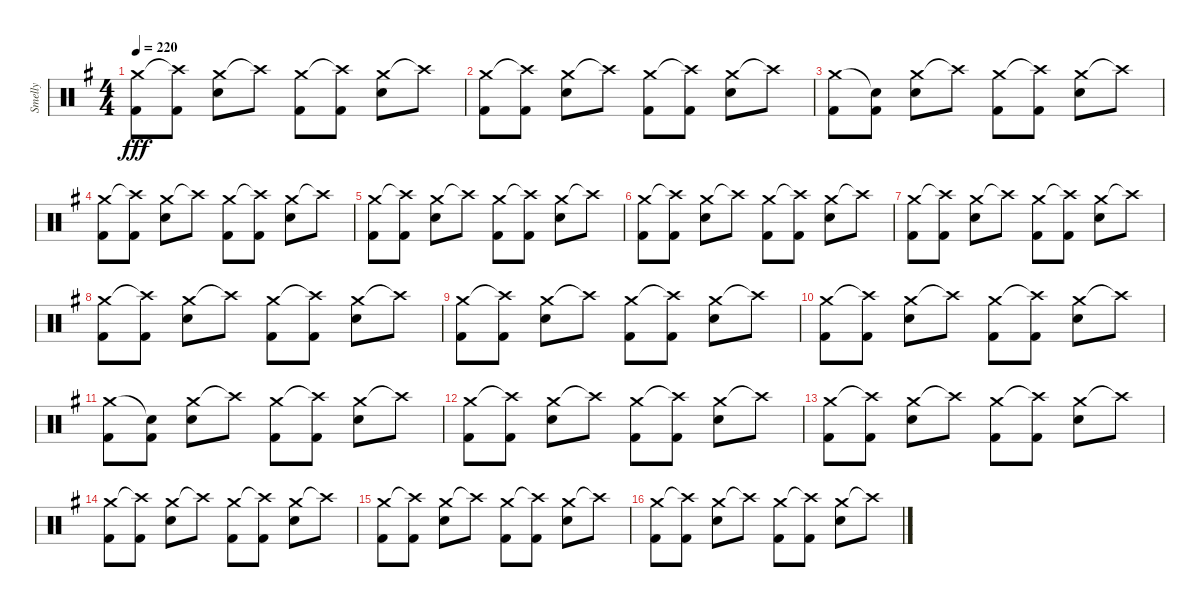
\track ("Smelly" "Smelly") {instrument percussion}
\staff {score}
\articulation defaults
\ts (4 4)
\tempo 220
\clef neutral
\ks eminor
("Crash medium (hit)" "Kick (hit) 2").8{dy fff} ("Crash high (hit)"{t} "Kick (hit) 2").8 ("Crash medium (hit)" "Electric Snare (hit)").8 "Crash high (hit)"{t}.8 ("Crash medium (hit)" "Kick (hit) 2").8 ("Crash high (hit)"{t} "Kick (hit) 2").8 ("Crash medium (hit)" "Electric Snare (hit)").8 "Crash high (hit)"{t}.8 |
("Crash medium (hit)" "Kick (hit) 2").8 ("Crash high (hit)"{t} "Kick (hit) 2").8 ("Crash medium (hit)" "Electric Snare (hit)").8 "Crash high (hit)"{t}.8 ("Crash medium (hit)" "Kick (hit) 2").8 ("Crash high (hit)"{t} "Kick (hit) 2").8 ("Crash medium (hit)" "Electric Snare (hit)").8 "Crash high (hit)"{t}.8 |
("Crash medium (hit)" "Kick (hit) 2").8 ("Snare (hit)"{t} "Kick (hit) 2").8 ("Crash medium (hit)" "Electric Snare (hit)").8 "Crash high (hit)"{t}.8 ("Crash medium (hit)" "Kick (hit) 2").8 ("Crash high (hit)"{t} "Kick (hit) 2").8 ("Crash medium (hit)" "Electric Snare (hit)").8 "Crash high (hit)"{t}.8 |
("Crash medium (hit)" "Kick (hit) 2").8 ("Crash high (hit)"{t} "Kick (hit) 2").8 ("Crash medium (hit)" "Electric Snare (hit)").8 "Crash high (hit)"{t}.8 ("Crash medium (hit)" "Kick (hit) 2").8 ("Crash high (hit)"{t} "Kick (hit) 2").8 ("Crash medium (hit)" "Electric Snare (hit)").8 "Crash high (hit)"{t}.8 |
("Crash medium (hit)" "Kick (hit) 2").8 ("Crash high (hit)"{t} "Kick (hit) 2").8 ("Crash medium (hit)" "Electric Snare (hit)").8 "Crash high (hit)"{t}.8 ("Crash medium (hit)" "Kick (hit) 2").8 ("Crash high (hit)"{t} "Kick (hit) 2").8 ("Crash medium (hit)" "Electric Snare (hit)").8 "Crash high (hit)"{t}.8 |
("Crash medium (hit)" "Kick (hit) 2").8 ("Crash high (hit)"{t} "Kick (hit) 2").8 ("Crash medium (hit)" "Electric Snare (hit)").8 "Crash high (hit)"{t}.8 ("Crash medium (hit)" "Kick (hit) 2").8 ("Crash high (hit)"{t} "Kick (hit) 2").8 ("Crash medium (hit)" "Electric Snare (hit)").8 "Crash high (hit)"{t}.8 |
("Crash medium (hit)" "Kick (hit) 2").8 ("Crash high (hit)"{t} "Kick (hit) 2").8 ("Crash medium (hit)" "Electric Snare (hit)").8 "Crash high (hit)"{t}.8 ("Crash medium (hit)" "Kick (hit) 2").8 ("Crash high (hit)"{t} "Kick (hit) 2").8 ("Crash medium (hit)" "Electric Snare (hit)").8 "Crash high (hit)"{t}.8 |
("Crash medium (hit)" "Kick (hit) 2").8 ("Crash high (hit)"{t} "Kick (hit) 2").8 ("Crash medium (hit)" "Electric Snare (hit)").8 "Crash high (hit)"{t}.8 ("Crash medium (hit)" "Kick (hit) 2").8 ("Crash high (hit)"{t} "Kick (hit) 2").8 ("Crash medium (hit)" "Electric Snare (hit)").8 "Crash high (hit)"{t}.8 |
("Crash medium (hit)" "Kick (hit) 2").8 ("Crash high (hit)"{t} "Kick (hit) 2").8 ("Crash medium (hit)" "Electric Snare (hit)").8 "Crash high (hit)"{t}.8 ("Crash medium (hit)" "Kick (hit) 2").8 ("Crash high (hit)"{t} "Kick (hit) 2").8 ("Crash medium (hit)" "Electric Snare (hit)").8 "Crash high (hit)"{t}.8 |
("Crash medium (hit)" "Kick (hit) 2").8 ("Crash high (hit)"{t} "Kick (hit) 2").8 ("Crash medium (hit)" "Electric Snare (hit)").8 "Crash high (hit)"{t}.8 ("Crash medium (hit)" "Kick (hit) 2").8 ("Crash high (hit)"{t} "Kick (hit) 2").8 ("Crash medium (hit)" "Electric Snare (hit)").8 "Crash high (hit)"{t}.8 |
("Crash medium (hit)" "Kick (hit) 2").8 ("Snare (hit)"{t} "Kick (hit) 2").8 ("Crash medium (hit)" "Electric Snare (hit)").8 "Crash high (hit)"{t}.8 ("Crash medium (hit)" "Kick (hit) 2").8 ("Crash high (hit)"{t} "Kick (hit) 2").8 ("Crash medium (hit)" "Electric Snare (hit)").8 "Crash high (hit)"{t}.8 |
("Crash medium (hit)" "Kick (hit) 2").8 ("Crash high (hit)"{t} "Kick (hit) 2").8 ("Crash medium (hit)" "Electric Snare (hit)").8 "Crash high (hit)"{t}.8 ("Crash medium (hit)" "Kick (hit) 2").8 ("Crash high (hit)"{t} "Kick (hit) 2").8 ("Crash medium (hit)" "Electric Snare (hit)").8 "Crash high (hit)"{t}.8 |
("Crash medium (hit)" "Kick (hit) 2").8 ("Crash high (hit)"{t} "Kick (hit) 2").8 ("Crash medium (hit)" "Electric Snare (hit)").8 "Crash high (hit)"{t}.8 ("Crash medium (hit)" "Kick (hit) 2").8 ("Crash high (hit)"{t} "Kick (hit) 2").8 ("Crash medium (hit)" "Electric Snare (hit)").8 "Crash high (hit)"{t}.8 |
("Crash medium (hit)" "Kick (hit) 2").8 ("Crash high (hit)"{t} "Kick (hit) 2").8 ("Crash medium (hit)" "Electric Snare (hit)").8 "Crash high (hit)"{t}.8 ("Crash medium (hit)" "Kick (hit) 2").8 ("Crash high (hit)"{t} "Kick (hit) 2").8 ("Crash medium (hit)" "Electric Snare (hit)").8 "Crash high (hit)"{t}.8 |
("Crash medium (hit)" "Kick (hit) 2").8 ("Crash high (hit)"{t} "Kick (hit) 2").8 ("Crash medium (hit)" "Electric Snare (hit)").8 "Crash high (hit)"{t}.8 ("Crash medium (hit)" "Kick (hit) 2").8 ("Crash high (hit)"{t} "Kick (hit) 2").8 ("Crash medium (hit)" "Electric Snare (hit)").8 "Crash high (hit)"{t}.8 |
("Crash medium (hit)" "Kick (hit) 2").8 ("Crash high (hit)"{t} "Kick (hit) 2").8 ("Crash medium (hit)" "Electric Snare (hit)").8 "Crash high (hit)"{t}.8 ("Crash medium (hit)" "Kick (hit) 2").8 ("Crash high (hit)"{t} "Kick (hit) 2").8 ("Crash medium (hit)" "Electric Snare (hit)").8 "Crash high (hit)"{t}.8
